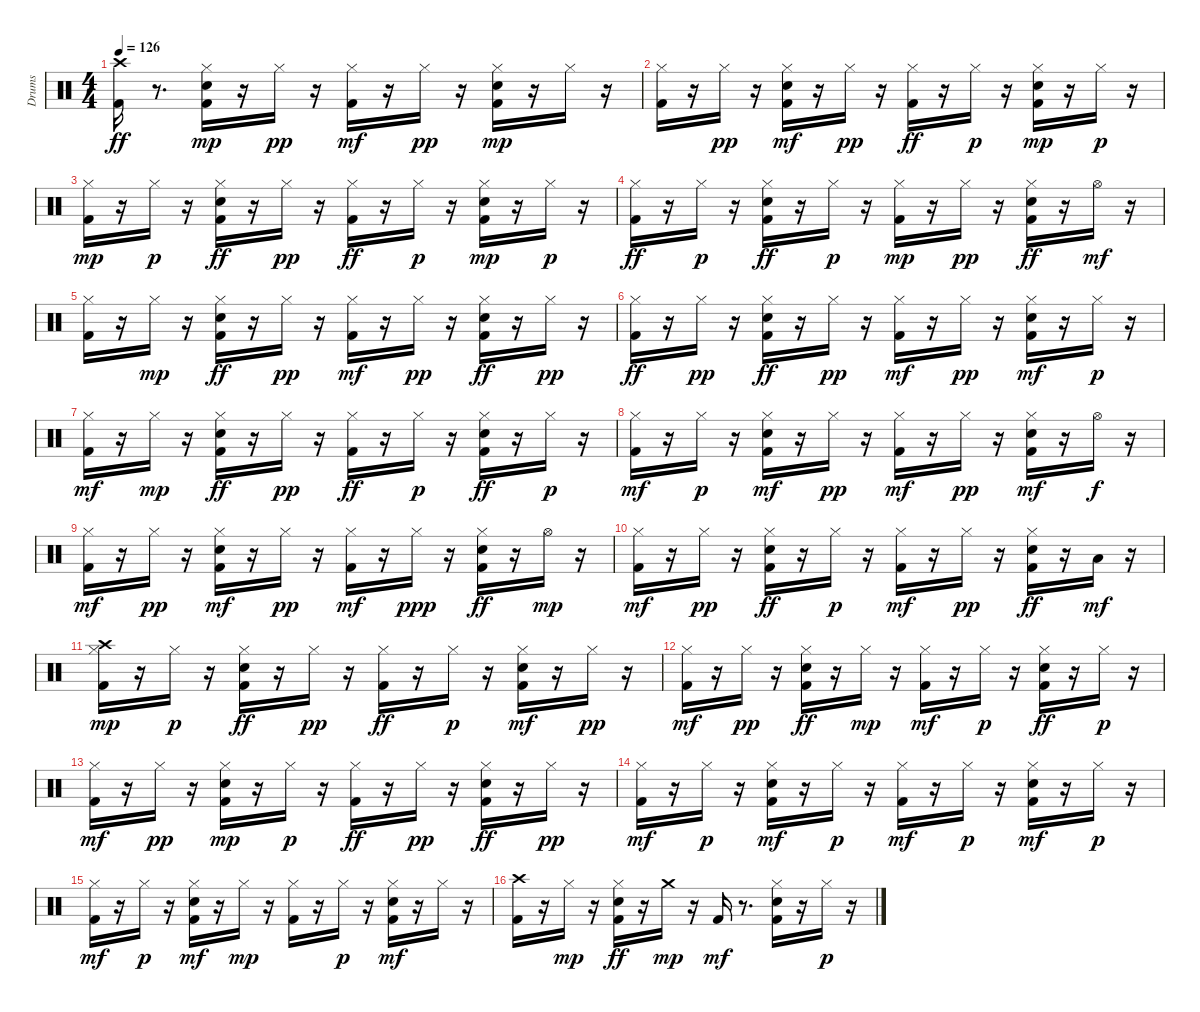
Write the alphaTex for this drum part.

\track ("Drums" "Drums") {instrument percussion}
\staff {score}
\articulation defaults
\ts (4 4)
\tempo 126
\clef neutral
\ks c
("Kick (hit) 2" "Crash high (hit)").16{dy ff} r.8{d} ("Kick (hit) 2" "Snare (hit) 2" "Hi-Hat (closed)").16{dy mp} r.16 "Hi-Hat (closed)".16{dy pp} r.16 ("Kick (hit) 2" "Hi-Hat (closed)").16{dy mf} r.16 "Hi-Hat (closed)".16{dy pp} r.16 ("Snare (hit) 2" "Hi-Hat (closed)" "Kick (hit) 2").16{dy mp} r.16 "Hi-Hat (closed)".16 r.16 |
("Kick (hit) 2" "Hi-Hat (closed)").16 r.16 "Hi-Hat (closed)".16{dy pp} r.16 ("Kick (hit) 2" "Snare (hit) 2" "Hi-Hat (closed)").16{dy mf} r.16 "Hi-Hat (closed)".16{dy pp} r.16 ("Kick (hit) 2" "Hi-Hat (closed)").16{dy ff} r.16 "Hi-Hat (closed)".16{dy p} r.16 ("Kick (hit) 2" "Snare (hit) 2" "Hi-Hat (closed)").16{dy mp} r.16 "Hi-Hat (closed)".16{dy p} r.16 |
("Kick (hit) 2" "Hi-Hat (closed)").16{dy mp} r.16 "Hi-Hat (closed)".16{dy p} r.16 ("Kick (hit) 2" "Hi-Hat (closed)" "Snare (hit) 2").16{dy ff} r.16 "Hi-Hat (closed)".16{dy pp} r.16 ("Kick (hit) 2" "Hi-Hat (closed)").16{dy ff} r.16 "Hi-Hat (closed)".16{dy p} r.16 ("Kick (hit) 2" "Snare (hit) 2" "Hi-Hat (closed)").16{dy mp} r.16 "Hi-Hat (closed)".16{dy p} r.16 |
("Kick (hit) 2" "Hi-Hat (closed)").16{dy ff} r.16 "Hi-Hat (closed)".16{dy p} r.16 ("Kick (hit) 2" "Snare (hit) 2" "Hi-Hat (closed)").16{dy ff} r.16 "Hi-Hat (closed)".16{dy p} r.16 ("Kick (hit) 2" "Hi-Hat (closed)").16{dy mp} r.16 "Hi-Hat (closed)".16{dy pp} r.16 ("Kick (hit) 2" "Hi-Hat (closed)" "Snare (hit) 2").16{dy ff} r.16 "Hi-Hat (open)".16{dy mf} r.16 |
("Kick (hit) 2" "Hi-Hat (closed)").16 r.16 "Hi-Hat (closed)".16{dy mp} r.16 ("Kick (hit) 2" "Snare (hit) 2" "Hi-Hat (closed)").16{dy ff} r.16 "Hi-Hat (closed)".16{dy pp} r.16 ("Hi-Hat (closed)" "Kick (hit) 2").16{dy mf} r.16 "Hi-Hat (closed)".16{dy pp} r.16 ("Kick (hit) 2" "Snare (hit) 2" "Hi-Hat (closed)").16{dy ff} r.16 "Hi-Hat (closed)".16{dy pp} r.16 |
("Kick (hit) 2" "Hi-Hat (closed)").16{dy ff} r.16 "Hi-Hat (closed)".16{dy pp} r.16 ("Kick (hit) 2" "Snare (hit) 2" "Hi-Hat (closed)").16{dy ff} r.16 "Hi-Hat (closed)".16{dy pp} r.16 ("Kick (hit) 2" "Hi-Hat (closed)").16{dy mf} r.16 "Hi-Hat (closed)".16{dy pp} r.16 ("Snare (hit) 2" "Hi-Hat (closed)" "Kick (hit) 2").16{dy mf} r.16 "Hi-Hat (closed)".16{dy p} r.16 |
("Hi-Hat (closed)" "Kick (hit) 2").16{dy mf} r.16 "Hi-Hat (closed)".16{dy mp} r.16 ("Kick (hit) 2" "Hi-Hat (closed)" "Snare (hit) 2").16{dy ff} r.16 "Hi-Hat (closed)".16{dy pp} r.16 ("Kick (hit) 2" "Hi-Hat (closed)").16{dy ff} r.16 "Hi-Hat (closed)".16{dy p} r.16 ("Snare (hit) 2" "Kick (hit) 2" "Hi-Hat (closed)").16{dy ff} r.16 "Hi-Hat (closed)".16{dy p} r.16 |
("Hi-Hat (closed)" "Kick (hit) 2").16{dy mf} r.16 "Hi-Hat (closed)".16{dy p} r.16 ("Kick (hit) 2" "Hi-Hat (closed)" "Snare (hit) 2").16{dy mf} r.16 "Hi-Hat (closed)".16{dy pp} r.16 ("Hi-Hat (closed)" "Kick (hit) 2").16{dy mf} r.16 "Hi-Hat (closed)".16{dy pp} r.16 ("Hi-Hat (closed)" "Kick (hit) 2" "Snare (hit) 2").16{dy mf} r.16 "Hi-Hat (open)".16{dy f} r.16 |
("Kick (hit) 2" "Hi-Hat (closed)").16{dy mf} r.16 "Hi-Hat (closed)".16{dy pp} r.16 ("Snare (hit) 2" "Hi-Hat (closed)" "Kick (hit) 2").16{dy mf} r.16 "Hi-Hat (closed)".16{dy pp} r.16 ("Hi-Hat (closed)" "Kick (hit) 2").16{dy mf} r.16 "Hi-Hat (closed)".16{dy ppp} r.16 ("Hi-Hat (closed)" "Kick (hit) 2" "Snare (hit) 2").16{dy ff} r.16 "Hi-Hat (open)".16{dy mp} r.16 |
("Kick (hit) 2" "Hi-Hat (closed)").16{dy mf} r.16 "Hi-Hat (closed)".16{dy pp} r.16 ("Kick (hit) 2" "Snare (hit) 2" "Hi-Hat (closed)").16{dy ff} r.16 "Hi-Hat (closed)".16{dy p} r.16 ("Kick (hit) 2" "Hi-Hat (closed)").16{dy mf} r.16 "Hi-Hat (closed)".16{dy pp} r.16 ("Kick (hit) 2" "Snare (hit) 2" "Hi-Hat (closed)").16{dy ff} r.16 "Low Floor Tom (hit)".16{dy mf} r.16 |
("Crash high (hit)" "Kick (hit) 2" "Hi-Hat (closed)").16{dy mp} r.16 "Hi-Hat (closed)".16{dy p} r.16 ("Kick (hit) 2" "Hi-Hat (closed)" "Snare (hit) 2").16{dy ff} r.16 "Hi-Hat (closed)".16{dy pp} r.16 ("Kick (hit) 2" "Hi-Hat (closed)").16{dy ff} r.16 "Hi-Hat (closed)".16{dy p} r.16 ("Kick (hit) 2" "Snare (hit) 2" "Hi-Hat (closed)").16{dy mf} r.16 "Hi-Hat (closed)".16{dy pp} r.16 |
("Kick (hit) 2" "Hi-Hat (closed)").16{dy mf} r.16 "Hi-Hat (closed)".16{dy pp} r.16 ("Kick (hit) 2" "Snare (hit) 2" "Hi-Hat (closed)").16{dy ff} r.16 "Hi-Hat (closed)".16{dy mp} r.16 ("Kick (hit) 2" "Hi-Hat (closed)").16{dy mf} r.16 "Hi-Hat (closed)".16{dy p} r.16 ("Hi-Hat (closed)" "Kick (hit) 2" "Snare (hit) 2").16{dy ff} r.16 "Hi-Hat (closed)".16{dy p} r.16 |
("Kick (hit) 2" "Hi-Hat (closed)").16{dy mf} r.16 "Hi-Hat (closed)".16{dy pp} r.16 ("Snare (hit) 2" "Kick (hit) 2" "Hi-Hat (closed)").16{dy mp} r.16 "Hi-Hat (closed)".16{dy p} r.16 ("Kick (hit) 2" "Hi-Hat (closed)").16{dy ff} r.16 "Hi-Hat (closed)".16{dy pp} r.16 ("Kick (hit) 2" "Snare (hit) 2" "Hi-Hat (closed)").16{dy ff} r.16 "Hi-Hat (closed)".16{dy pp} r.16 |
("Kick (hit) 2" "Hi-Hat (closed)").16{dy mf} r.16 "Hi-Hat (closed)".16{dy p} r.16 ("Hi-Hat (closed)" "Kick (hit) 2" "Snare (hit) 2").16{dy mf} r.16 "Hi-Hat (closed)".16{dy p} r.16 ("Kick (hit) 2" "Hi-Hat (closed)").16{dy mf} r.16 "Hi-Hat (closed)".16{dy p} r.16 ("Kick (hit) 2" "Snare (hit) 2" "Hi-Hat (closed)").16{dy mf} r.16 "Hi-Hat (closed)".16{dy p} r.16 |
("Kick (hit) 2" "Hi-Hat (closed)").16{dy mf} r.16 "Hi-Hat (closed)".16{dy p} r.16 ("Snare (hit) 2" "Kick (hit) 2" "Hi-Hat (closed)").16{dy mf} r.16 "Hi-Hat (closed)".16{dy mp} r.16 ("Kick (hit) 2" "Hi-Hat (closed)").16 r.16 "Hi-Hat (closed)".16{dy p} r.16 ("Snare (hit) 2" "Kick (hit) 2" "Hi-Hat (closed)").16{dy mf} r.16 "Hi-Hat (closed)".16 r.16 |
("Crash high (hit)" "Kick (hit) 2").16 r.16 "Hi-Hat (closed)".16{dy mp} r.16 ("Hi-Hat (closed)" "Kick (hit) 2" "Snare (hit) 2").16{dy ff} r.16 "Crash medium (hit)".16{dy mp} r.16 "Kick (hit) 2".16{dy mf} r.8{d} ("Hi-Hat (closed)" "Snare (hit) 2" "Kick (hit) 2").16 r.16 "Hi-Hat (closed)".16{dy p} r.16
